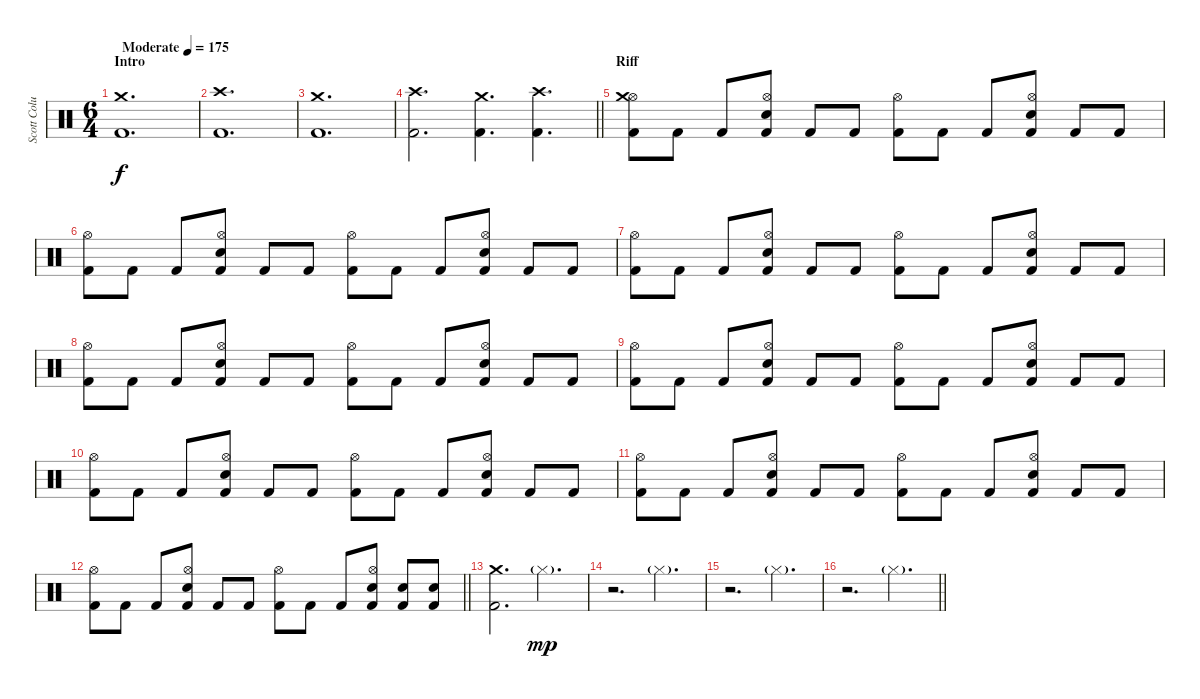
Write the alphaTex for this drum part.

\track ("Scott Columbus" "Scott Colu") {instrument percussion}
\staff {score}
\articulation defaults
\ts (6 4)
\section ("" "Intro")
\tempo (175 "Moderate")
\clef neutral
\ks c
("Kick (hit) 2" "Crash medium (hit)").1{d dy f} |
("Kick (hit) 2" "Crash high (hit)").1{d} |
("Kick (hit) 2" "Crash medium (hit)").1{d} |
\barLineRight lightlight
("Kick (hit) 2" "Crash high (hit)").2{d} ("Kick (hit) 2" "Crash medium (hit)").4{d} ("Kick (hit) 2" "Crash high (hit)").4{d} |
\section ("" "Riff")
("Kick (hit) 2" "Hi-Hat (open)" "Crash medium (hit)").8 "Kick (hit) 2".8 "Kick (hit) 2".8 ("Kick (hit) 2" "Snare (hit) 2" "Hi-Hat (open)").8 "Kick (hit) 2".8 "Kick (hit) 2".8 ("Kick (hit) 2" "Hi-Hat (open)").8 "Kick (hit) 2".8 "Kick (hit) 2".8 ("Kick (hit) 2" "Snare (hit) 2" "Hi-Hat (open)").8 "Kick (hit) 2".8 "Kick (hit) 2".8 |
("Kick (hit) 2" "Hi-Hat (open)").8 "Kick (hit) 2".8 "Kick (hit) 2".8 ("Kick (hit) 2" "Snare (hit) 2" "Hi-Hat (open)").8 "Kick (hit) 2".8 "Kick (hit) 2".8 ("Kick (hit) 2" "Hi-Hat (open)").8 "Kick (hit) 2".8 "Kick (hit) 2".8 ("Kick (hit) 2" "Snare (hit) 2" "Hi-Hat (open)").8 "Kick (hit) 2".8 "Kick (hit) 2".8 |
("Kick (hit) 2" "Hi-Hat (open)").8 "Kick (hit) 2".8 "Kick (hit) 2".8 ("Kick (hit) 2" "Snare (hit) 2" "Hi-Hat (open)").8 "Kick (hit) 2".8 "Kick (hit) 2".8 ("Kick (hit) 2" "Hi-Hat (open)").8 "Kick (hit) 2".8 "Kick (hit) 2".8 ("Kick (hit) 2" "Snare (hit) 2" "Hi-Hat (open)").8 "Kick (hit) 2".8 "Kick (hit) 2".8 |
("Kick (hit) 2" "Hi-Hat (open)").8 "Kick (hit) 2".8 "Kick (hit) 2".8 ("Kick (hit) 2" "Snare (hit) 2" "Hi-Hat (open)").8 "Kick (hit) 2".8 "Kick (hit) 2".8 ("Kick (hit) 2" "Hi-Hat (open)").8 "Kick (hit) 2".8 "Kick (hit) 2".8 ("Kick (hit) 2" "Snare (hit) 2" "Hi-Hat (open)").8 "Kick (hit) 2".8 "Kick (hit) 2".8 |
("Kick (hit) 2" "Hi-Hat (open)").8 "Kick (hit) 2".8 "Kick (hit) 2".8 ("Kick (hit) 2" "Snare (hit) 2" "Hi-Hat (open)").8 "Kick (hit) 2".8 "Kick (hit) 2".8 ("Kick (hit) 2" "Hi-Hat (open)").8 "Kick (hit) 2".8 "Kick (hit) 2".8 ("Kick (hit) 2" "Snare (hit) 2" "Hi-Hat (open)").8 "Kick (hit) 2".8 "Kick (hit) 2".8 |
("Kick (hit) 2" "Hi-Hat (open)").8 "Kick (hit) 2".8 "Kick (hit) 2".8 ("Kick (hit) 2" "Snare (hit) 2" "Hi-Hat (open)").8 "Kick (hit) 2".8 "Kick (hit) 2".8 ("Kick (hit) 2" "Hi-Hat (open)").8 "Kick (hit) 2".8 "Kick (hit) 2".8 ("Kick (hit) 2" "Snare (hit) 2" "Hi-Hat (open)").8 "Kick (hit) 2".8 "Kick (hit) 2".8 |
("Kick (hit) 2" "Hi-Hat (open)").8 "Kick (hit) 2".8 "Kick (hit) 2".8 ("Kick (hit) 2" "Snare (hit) 2" "Hi-Hat (open)").8 "Kick (hit) 2".8 "Kick (hit) 2".8 ("Kick (hit) 2" "Hi-Hat (open)").8 "Kick (hit) 2".8 "Kick (hit) 2".8 ("Kick (hit) 2" "Snare (hit) 2" "Hi-Hat (open)").8 "Kick (hit) 2".8 "Kick (hit) 2".8 |
\barLineRight lightlight
("Kick (hit) 2" "Hi-Hat (open)").8 "Kick (hit) 2".8 "Kick (hit) 2".8 ("Kick (hit) 2" "Snare (hit) 2" "Hi-Hat (open)").8 "Kick (hit) 2".8 "Kick (hit) 2".8 ("Kick (hit) 2" "Hi-Hat (open)").8 "Kick (hit) 2".8 "Kick (hit) 2".8 ("Kick (hit) 2" "Snare (hit) 2" "Hi-Hat (open)").8 ("Kick (hit) 2" "Snare (hit) 2").8 ("Kick (hit) 2" "Snare (hit) 2").8 |
\section ("" "")
("Kick (hit) 2" "Crash medium (hit)").2{d} "Hi-Hat (closed)"{g}.2{d dy mp} |
r.2{d} "Hi-Hat (closed)"{g}.2{d} |
r.2{d} "Hi-Hat (closed)"{g}.2{d} |
\barLineRight lightlight
r.2{d} "Hi-Hat (closed)"{g}.2{d}
